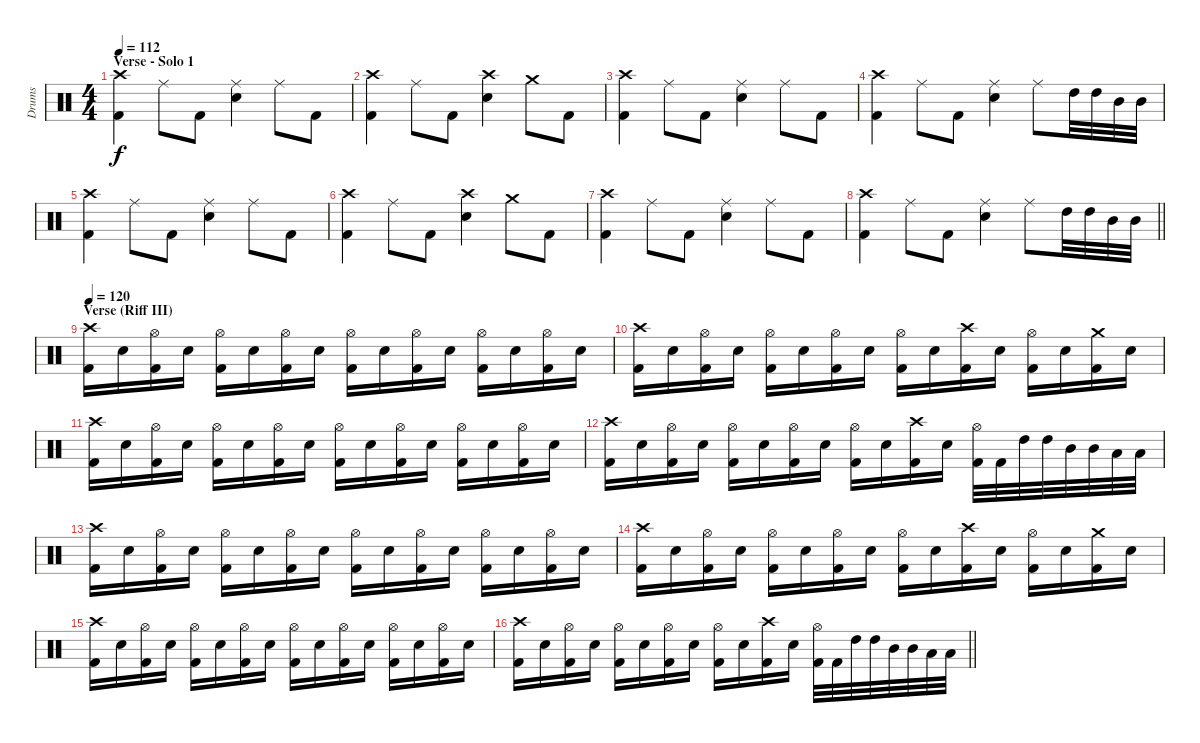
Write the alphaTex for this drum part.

\track ("Drums" "Drums") {instrument percussion}
\staff {score}
\articulation defaults
\ts (4 4)
\section ("" "Verse - Solo 1")
\tempo 112
\clef neutral
\ks c
("Crash high (hit)" "Kick (hit) 2").4{dy f} "Ride (middle)".8 "Kick (hit) 2".8 ("Ride (middle)" "Electric Snare (hit)").4 "Ride (middle)".8 "Kick (hit) 2".8 |
("Crash high (hit)" "Kick (hit) 2").4 "Ride (middle)".8 "Kick (hit) 2".8 ("Crash high (hit)" "Electric Snare (hit)").4 "Crash medium (hit)".8 "Kick (hit) 2".8 |
("Crash high (hit)" "Kick (hit) 2").4 "Ride (middle)".8 "Kick (hit) 2".8 ("Ride (middle)" "Electric Snare (hit)").4 "Ride (middle)".8 "Kick (hit) 2".8 |
("Crash high (hit)" "Kick (hit) 2").4 "Ride (middle)".8 "Kick (hit) 2".8 ("Ride (middle)" "Electric Snare (hit)").4 "Ride (middle)".8 "High Tom (hit)".32 "High Tom (hit)".32 "Mid Tom (hit)".32 "Mid Tom (hit)".32 |
("Crash high (hit)" "Kick (hit) 2").4 "Ride (middle)".8 "Kick (hit) 2".8 ("Ride (middle)" "Electric Snare (hit)").4 "Ride (middle)".8 "Kick (hit) 2".8 |
("Crash high (hit)" "Kick (hit) 2").4 "Ride (middle)".8 "Kick (hit) 2".8 ("Crash high (hit)" "Electric Snare (hit)").4 "Crash medium (hit)".8 "Kick (hit) 2".8 |
("Crash high (hit)" "Kick (hit) 2").4 "Ride (middle)".8 "Kick (hit) 2".8 ("Ride (middle)" "Electric Snare (hit)").4 "Ride (middle)".8 "Kick (hit) 2".8 |
\barLineRight lightlight
("Crash high (hit)" "Kick (hit) 2").4 "Ride (middle)".8 "Kick (hit) 2".8 ("Ride (middle)" "Electric Snare (hit)").4 "Ride (middle)".8 "High Tom (hit)".32 "High Tom (hit)".32 "Mid Tom (hit)".32 "Mid Tom (hit)".32 |
\section ("" "Verse (Riff III)")
\tempo 120
("Crash high (hit)" "Kick (hit) 2").16 "Electric Snare (hit)".16 ("Hi-Hat (open)" "Kick (hit) 2").16 "Electric Snare (hit)".16 ("Hi-Hat (open)" "Kick (hit) 2").16 "Electric Snare (hit)".16 ("Hi-Hat (open)" "Kick (hit) 2").16 "Electric Snare (hit)".16 ("Hi-Hat (open)" "Kick (hit) 2").16 "Electric Snare (hit)".16 ("Hi-Hat (open)" "Kick (hit) 2").16 "Electric Snare (hit)".16 ("Hi-Hat (open)" "Kick (hit) 2").16 "Electric Snare (hit)".16 ("Hi-Hat (open)" "Kick (hit) 2").16 "Electric Snare (hit)".16 |
("Crash high (hit)" "Kick (hit) 2").16 "Electric Snare (hit)".16 ("Hi-Hat (open)" "Kick (hit) 2").16 "Electric Snare (hit)".16 ("Hi-Hat (open)" "Kick (hit) 2").16 "Electric Snare (hit)".16 ("Hi-Hat (open)" "Kick (hit) 2").16 "Electric Snare (hit)".16 ("Hi-Hat (open)" "Kick (hit) 2").16 "Electric Snare (hit)".16 ("Crash high (hit)" "Kick (hit) 2").16 "Electric Snare (hit)".16 ("Hi-Hat (open)" "Kick (hit) 2").16 "Electric Snare (hit)".16 ("Crash medium (hit)" "Kick (hit) 2").16 "Electric Snare (hit)".16 |
("Crash high (hit)" "Kick (hit) 2").16 "Electric Snare (hit)".16 ("Hi-Hat (open)" "Kick (hit) 2").16 "Electric Snare (hit)".16 ("Hi-Hat (open)" "Kick (hit) 2").16 "Electric Snare (hit)".16 ("Hi-Hat (open)" "Kick (hit) 2").16 "Electric Snare (hit)".16 ("Hi-Hat (open)" "Kick (hit) 2").16 "Electric Snare (hit)".16 ("Hi-Hat (open)" "Kick (hit) 2").16 "Electric Snare (hit)".16 ("Hi-Hat (open)" "Kick (hit) 2").16 "Electric Snare (hit)".16 ("Hi-Hat (open)" "Kick (hit) 2").16 "Electric Snare (hit)".16 |
("Crash high (hit)" "Kick (hit) 2").16 "Electric Snare (hit)".16 ("Hi-Hat (open)" "Kick (hit) 2").16 "Electric Snare (hit)".16 ("Hi-Hat (open)" "Kick (hit) 2").16 "Electric Snare (hit)".16 ("Hi-Hat (open)" "Kick (hit) 2").16 "Electric Snare (hit)".16 ("Hi-Hat (open)" "Kick (hit) 2").16 "Electric Snare (hit)".16 ("Crash high (hit)" "Kick (hit) 2").16 "Electric Snare (hit)".16 ("Hi-Hat (open)" "Kick (hit) 2").32 "Kick (hit) 2".32 "High Tom (hit)".32 "High Tom (hit)".32 "Mid Tom (hit)".32 "Mid Tom (hit)".32 "Low Tom (hit)".32 "Low Tom (hit)".32 |
("Crash high (hit)" "Kick (hit) 2").16 "Electric Snare (hit)".16 ("Hi-Hat (open)" "Kick (hit) 2").16 "Electric Snare (hit)".16 ("Hi-Hat (open)" "Kick (hit) 2").16 "Electric Snare (hit)".16 ("Hi-Hat (open)" "Kick (hit) 2").16 "Electric Snare (hit)".16 ("Hi-Hat (open)" "Kick (hit) 2").16 "Electric Snare (hit)".16 ("Hi-Hat (open)" "Kick (hit) 2").16 "Electric Snare (hit)".16 ("Hi-Hat (open)" "Kick (hit) 2").16 "Electric Snare (hit)".16 ("Hi-Hat (open)" "Kick (hit) 2").16 "Electric Snare (hit)".16 |
("Crash high (hit)" "Kick (hit) 2").16 "Electric Snare (hit)".16 ("Hi-Hat (open)" "Kick (hit) 2").16 "Electric Snare (hit)".16 ("Hi-Hat (open)" "Kick (hit) 2").16 "Electric Snare (hit)".16 ("Hi-Hat (open)" "Kick (hit) 2").16 "Electric Snare (hit)".16 ("Hi-Hat (open)" "Kick (hit) 2").16 "Electric Snare (hit)".16 ("Crash high (hit)" "Kick (hit) 2").16 "Electric Snare (hit)".16 ("Hi-Hat (open)" "Kick (hit) 2").16 "Electric Snare (hit)".16 ("Crash medium (hit)" "Kick (hit) 2").16 "Electric Snare (hit)".16 |
("Crash high (hit)" "Kick (hit) 2").16 "Electric Snare (hit)".16 ("Hi-Hat (open)" "Kick (hit) 2").16 "Electric Snare (hit)".16 ("Hi-Hat (open)" "Kick (hit) 2").16 "Electric Snare (hit)".16 ("Hi-Hat (open)" "Kick (hit) 2").16 "Electric Snare (hit)".16 ("Hi-Hat (open)" "Kick (hit) 2").16 "Electric Snare (hit)".16 ("Hi-Hat (open)" "Kick (hit) 2").16 "Electric Snare (hit)".16 ("Hi-Hat (open)" "Kick (hit) 2").16 "Electric Snare (hit)".16 ("Hi-Hat (open)" "Kick (hit) 2").16 "Electric Snare (hit)".16 |
\barLineRight lightlight
("Crash high (hit)" "Kick (hit) 2").16 "Electric Snare (hit)".16 ("Hi-Hat (open)" "Kick (hit) 2").16 "Electric Snare (hit)".16 ("Hi-Hat (open)" "Kick (hit) 2").16 "Electric Snare (hit)".16 ("Hi-Hat (open)" "Kick (hit) 2").16 "Electric Snare (hit)".16 ("Hi-Hat (open)" "Kick (hit) 2").16 "Electric Snare (hit)".16 ("Crash high (hit)" "Kick (hit) 2").16 "Electric Snare (hit)".16 ("Hi-Hat (open)" "Kick (hit) 2").32 "Kick (hit) 2".32 "High Tom (hit)".32 "High Tom (hit)".32 "Mid Tom (hit)".32 "Mid Tom (hit)".32 "Low Tom (hit)".32 "Low Tom (hit)".32
